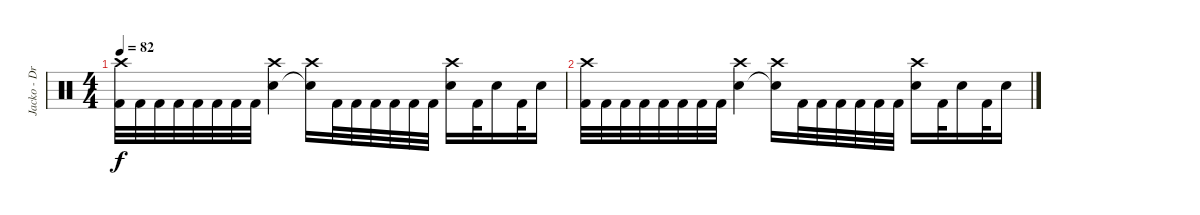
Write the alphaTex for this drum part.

\track ("Jacko - Drums" "Jacko - Dr") {instrument percussion}
\staff {score}
\articulation defaults
\ts (4 4)
\tempo 82
\clef neutral
\ks c
("Crash high (hit)" "Kick (hit) 2").32{dy f} "Kick (hit) 2".32 "Kick (hit) 2".32 "Kick (hit) 2".32 "Kick (hit) 2".32 "Kick (hit) 2".32 "Kick (hit) 2".32 "Kick (hit) 2".32 ("Crash high (hit)" "Snare (hit) 2").4 ("Crash high (hit)" "Snare (hit)"{t}).16 "Kick (hit) 2".32 "Kick (hit) 2".32 "Kick (hit) 2".32 "Kick (hit) 2".32 "Kick (hit) 2".32 "Kick (hit) 2".32 ("Crash high (hit)" "Snare (hit) 2").16 "Kick (hit) 2".32 "Snare (hit) 2".16 "Kick (hit) 2".32 "Snare (hit) 2".16 |
("Crash high (hit)" "Kick (hit) 2").32 "Kick (hit) 2".32 "Kick (hit) 2".32 "Kick (hit) 2".32 "Kick (hit) 2".32 "Kick (hit) 2".32 "Kick (hit) 2".32 "Kick (hit) 2".32 ("Crash high (hit)" "Snare (hit) 2").4 ("Crash high (hit)" "Snare (hit)"{t}).16 "Kick (hit) 2".32 "Kick (hit) 2".32 "Kick (hit) 2".32 "Kick (hit) 2".32 "Kick (hit) 2".32 "Kick (hit) 2".32 ("Crash high (hit)" "Snare (hit) 2").16 "Kick (hit) 2".32 "Snare (hit) 2".16 "Kick (hit) 2".32 "Snare (hit) 2".16
